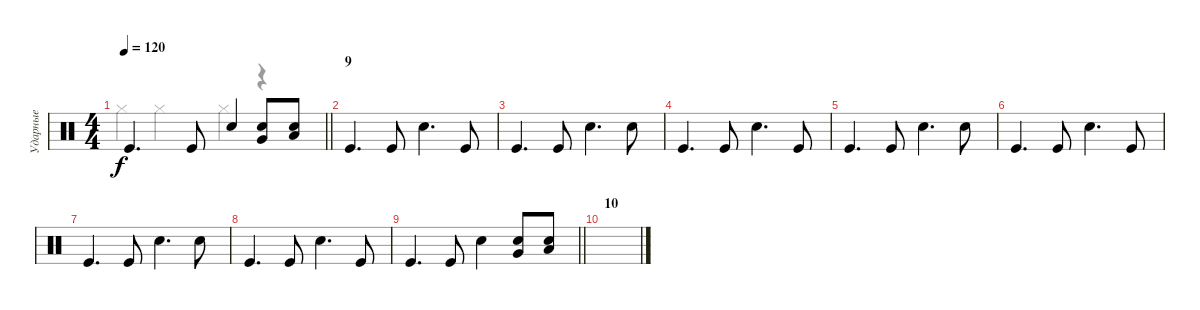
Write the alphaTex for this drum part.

\track ("Ударные" "Ударные") {instrument percussion}
\staff {score}
\articulation defaults
\voice
\ts (4 4)
\tempo 120
\clef neutral
\barLineRight lightlight
\ks c "Kick (hit)".4{d dy f} "Kick (hit)".8 "Snare (hit) 2".4
("Snare (hit) 2" "Very Low Tom (hit)").8 ("Snare (hit) 2" "Low Floor Tom (hit)").8 |
\section ("" "9")
"Kick (hit)".4{d} "Kick (hit)".8 "Snare (hit) 2".4{d} "Kick (hit)".8 |
"Kick (hit)".4{d} "Kick (hit)".8 "Snare (hit) 2".4{d} "Snare (hit) 2".8 |
"Kick (hit)".4{d} "Kick (hit)".8 "Snare (hit) 2".4{d} "Kick (hit)".8 |
"Kick (hit)".4{d} "Kick (hit)".8 "Snare (hit) 2".4{d} "Snare (hit) 2".8 |
"Kick (hit)".4{d} "Kick (hit)".8 "Snare (hit) 2".4{d} "Kick (hit)".8 |
"Kick (hit)".4{d} "Kick (hit)".8 "Snare (hit) 2".4{d} "Snare (hit) 2".8 |
"Kick (hit)".4{d} "Kick (hit)".8 "Snare (hit) 2".4{d} "Kick (hit)".8 |
\barLineRight lightlight "Kick (hit)".4{d} "Kick (hit)".8 "Snare (hit) 2".4
("Snare (hit) 2" "Very Low Tom (hit)").8 ("Snare (hit) 2" "Low Floor Tom (hit)").8 |
\section ("" "10")
|
|
|
|
|
|
\voice
\clef neutral
\ottava regular
\simile none
\barLineRight lightlight
\ks c "Hi-Hat (closed)".4{dy f} "Hi-Hat (closed)".4 "Hi-Hat (closed)".4
r.4 |
|
|
|
|
|
|
|
\barLineRight lightlight
|
|
|
|
|
|
|
